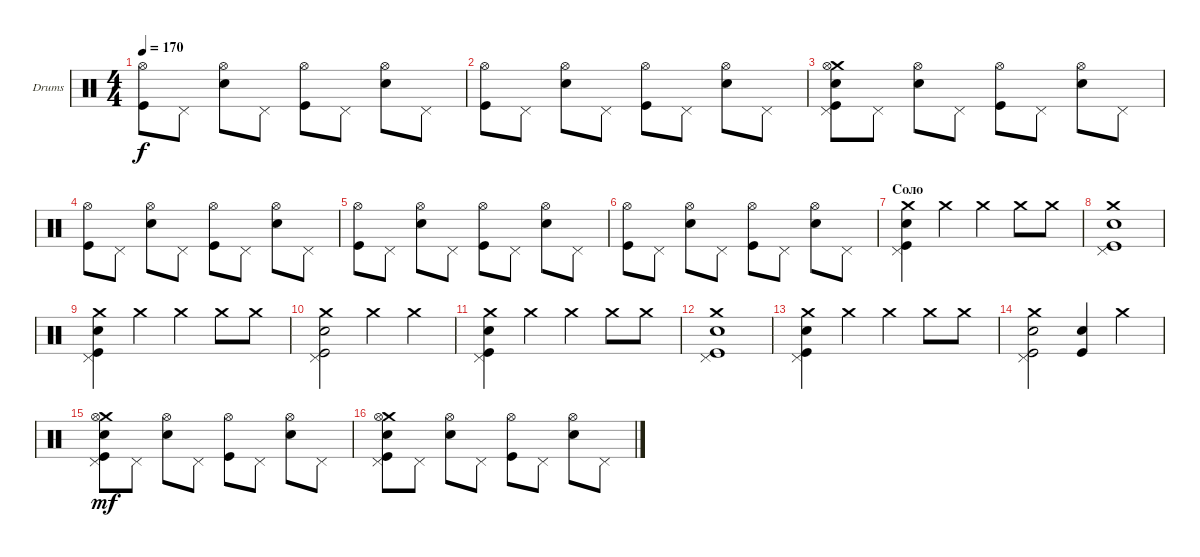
\defaultSystemsLayout 4
\bracketExtendMode groupsimilarinstruments
\firstSystemTrackNameOrientation horizontal
\otherSystemsTrackNameOrientation horizontal
\track ("Е. Кулаков" "Drums") {instrument percussion}
\staff {score}
\articulation defaults
\ts (4 4)
\tempo 170
\clef neutral
\ks c
("Kick (hit)" "Hi-Hat (open)").8{dy f} "Pedal Hi-Hat (hit)".8 ("Snare (hit) 2" "Hi-Hat (open)").8 "Pedal Hi-Hat (hit)".8 ("Kick (hit)" "Hi-Hat (open)").8 "Pedal Hi-Hat (hit)".8 ("Snare (hit) 2" "Hi-Hat (open)").8 "Pedal Hi-Hat (hit)".8 |
("Kick (hit)" "Hi-Hat (open)").8 "Pedal Hi-Hat (hit)".8 ("Snare (hit) 2" "Hi-Hat (open)").8 "Pedal Hi-Hat (hit)".8 ("Kick (hit)" "Hi-Hat (open)").8 "Pedal Hi-Hat (hit)".8 ("Snare (hit) 2" "Hi-Hat (open)").8 "Pedal Hi-Hat (hit)".8 |
("Kick (hit)" "Snare (hit) 2" "Crash medium (hit)" "Pedal Hi-Hat (hit)" "Hi-Hat (open)").8 "Pedal Hi-Hat (hit)".8 ("Snare (hit) 2" "Hi-Hat (open)").8 "Pedal Hi-Hat (hit)".8 ("Kick (hit)" "Hi-Hat (open)").8 "Pedal Hi-Hat (hit)".8 ("Snare (hit) 2" "Hi-Hat (open)").8 "Pedal Hi-Hat (hit)".8 |
("Kick (hit)" "Hi-Hat (open)").8 "Pedal Hi-Hat (hit)".8 ("Snare (hit) 2" "Hi-Hat (open)").8 "Pedal Hi-Hat (hit)".8 ("Kick (hit)" "Hi-Hat (open)").8 "Pedal Hi-Hat (hit)".8 ("Snare (hit) 2" "Hi-Hat (open)").8 "Pedal Hi-Hat (hit)".8 |
("Kick (hit)" "Hi-Hat (open)").8 "Pedal Hi-Hat (hit)".8 ("Snare (hit) 2" "Hi-Hat (open)").8 "Pedal Hi-Hat (hit)".8 ("Kick (hit)" "Hi-Hat (open)").8 "Pedal Hi-Hat (hit)".8 ("Snare (hit) 2" "Hi-Hat (open)").8 "Pedal Hi-Hat (hit)".8 |
("Kick (hit)" "Hi-Hat (open)").8 "Pedal Hi-Hat (hit)".8 ("Snare (hit) 2" "Hi-Hat (open)").8 "Pedal Hi-Hat (hit)".8 ("Kick (hit)" "Hi-Hat (open)").8 "Pedal Hi-Hat (hit)".8 ("Snare (hit) 2" "Hi-Hat (open)").8 "Pedal Hi-Hat (hit)".8 |
\section ("" "Соло")
("Pedal Hi-Hat (hit)" "Kick (hit)" "Snare (hit) 2" "Crash medium (hit)").4 "Crash medium (hit)".4 "Crash medium (hit)".4 "Crash medium (hit)".8 "Crash medium (hit)".8 |
("Pedal Hi-Hat (hit)" "Kick (hit)" "Snare (hit) 2" "Crash medium (hit)").1 |
("Pedal Hi-Hat (hit)" "Kick (hit)" "Snare (hit) 2" "Crash medium (hit)").4 "Crash medium (hit)".4 "Crash medium (hit)".4 "Crash medium (hit)".8 "Crash medium (hit)".8 |
("Pedal Hi-Hat (hit)" "Kick (hit)" "Snare (hit) 2" "Crash medium (hit)").2 "Crash medium (hit)".4 "Crash medium (hit)".4 |
("Pedal Hi-Hat (hit)" "Kick (hit)" "Snare (hit) 2" "Crash medium (hit)").4 "Crash medium (hit)".4 "Crash medium (hit)".4 "Crash medium (hit)".8 "Crash medium (hit)".8 |
("Pedal Hi-Hat (hit)" "Kick (hit)" "Snare (hit) 2" "Crash medium (hit)").1 |
("Pedal Hi-Hat (hit)" "Kick (hit)" "Snare (hit) 2" "Crash medium (hit)").4 "Crash medium (hit)".4 "Crash medium (hit)".4 "Crash medium (hit)".8 "Crash medium (hit)".8 |
("Pedal Hi-Hat (hit)" "Kick (hit)" "Snare (hit) 2" "Crash medium (hit)").2 ("Kick (hit)" "Snare (hit) 2").4 "Crash medium (hit)".4 |
("Kick (hit)" "Snare (hit) 2" "Crash medium (hit)" "Pedal Hi-Hat (hit)" "Hi-Hat (open)").8{dy mf} "Pedal Hi-Hat (hit)".8 ("Snare (hit) 2" "Hi-Hat (open)").8 "Pedal Hi-Hat (hit)".8 ("Kick (hit)" "Hi-Hat (open)").8 "Pedal Hi-Hat (hit)".8 ("Snare (hit) 2" "Hi-Hat (open)").8 "Pedal Hi-Hat (hit)".8 |
("Kick (hit)" "Snare (hit) 2" "Crash medium (hit)" "Pedal Hi-Hat (hit)" "Hi-Hat (open)").8 "Pedal Hi-Hat (hit)".8 ("Snare (hit) 2" "Hi-Hat (open)").8 "Pedal Hi-Hat (hit)".8 ("Kick (hit)" "Hi-Hat (open)").8 "Pedal Hi-Hat (hit)".8 ("Snare (hit) 2" "Hi-Hat (open)").8 "Pedal Hi-Hat (hit)".8
